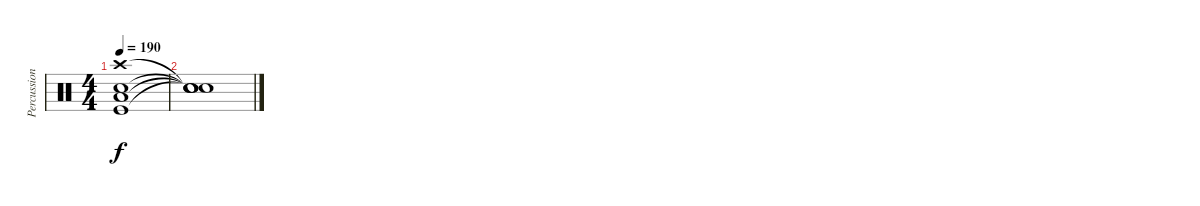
\track ("Percussion" "Percussion") {instrument percussion}
\staff {score}
\articulation defaults
\ts (4 4)
\tempo 190
\clef neutral
\ks c
("Crash high (hit)" "Snare (hit) 2" "Low Tom (hit)" "Kick (hit)").1{dy f} |
("Snare (hit)"{t} "Snare (hit)"{t} "Snare (hit)"{t} "Snare (hit)"{t}).1
